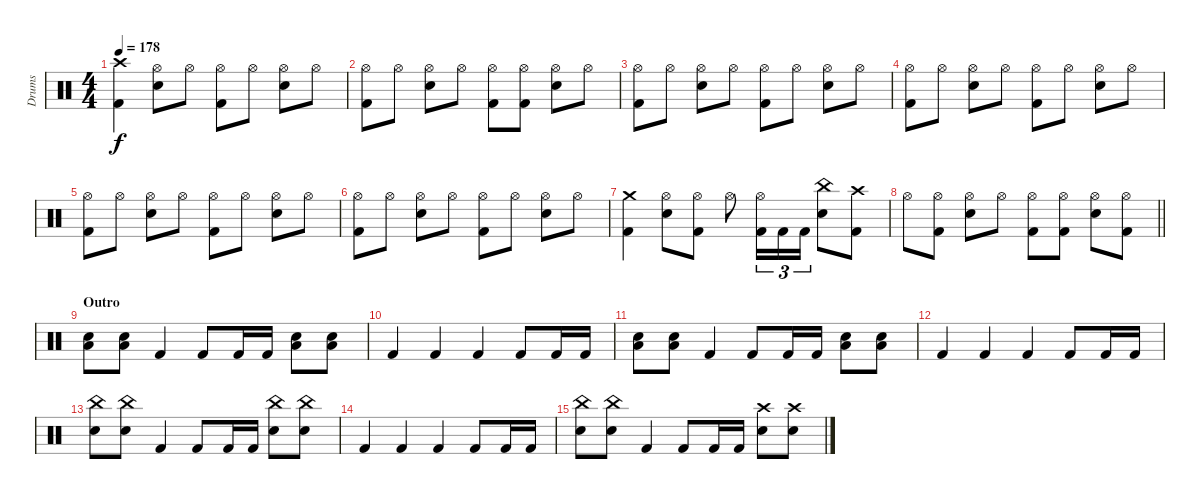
\track ("Drums" "Drums") {instrument percussion}
\staff {score}
\articulation defaults
\ts (4 4)
\tempo 178
\clef neutral
\ks c
("Crash high (hit)" "Kick (hit) 2").4{dy f} ("Hi-Hat (open)" "Electric Snare (hit)").8 "Hi-Hat (open)".8 ("Hi-Hat (open)" "Kick (hit) 2").8 "Hi-Hat (open)".8 ("Hi-Hat (open)" "Electric Snare (hit)").8 "Hi-Hat (open)".8 |
("Hi-Hat (open)" "Kick (hit) 2").8 "Hi-Hat (open)".8 ("Hi-Hat (open)" "Electric Snare (hit)").8 "Hi-Hat (open)".8 ("Hi-Hat (open)" "Kick (hit) 2").8 ("Hi-Hat (open)" "Kick (hit) 2").8 ("Hi-Hat (open)" "Electric Snare (hit)").8 "Hi-Hat (open)".8 |
("Hi-Hat (open)" "Kick (hit) 2").8 "Hi-Hat (open)".8 ("Hi-Hat (open)" "Electric Snare (hit)").8 "Hi-Hat (open)".8 ("Hi-Hat (open)" "Kick (hit) 2").8 "Hi-Hat (open)".8 ("Hi-Hat (open)" "Electric Snare (hit)").8 "Hi-Hat (open)".8 |
("Hi-Hat (open)" "Kick (hit) 2").8 "Hi-Hat (open)".8 ("Hi-Hat (open)" "Electric Snare (hit)").8 "Hi-Hat (open)".8 ("Hi-Hat (open)" "Kick (hit) 2").8 "Hi-Hat (open)".8 ("Hi-Hat (open)" "Electric Snare (hit)").8 "Hi-Hat (open)".8 |
("Hi-Hat (open)" "Kick (hit) 2").8 "Hi-Hat (open)".8 ("Hi-Hat (open)" "Electric Snare (hit)").8 "Hi-Hat (open)".8 ("Hi-Hat (open)" "Kick (hit) 2").8 "Hi-Hat (open)".8 ("Hi-Hat (open)" "Electric Snare (hit)").8 "Hi-Hat (open)".8 |
("Hi-Hat (open)" "Kick (hit) 2").8 "Hi-Hat (open)".8 ("Hi-Hat (open)" "Electric Snare (hit)").8 "Hi-Hat (open)".8 ("Hi-Hat (open)" "Kick (hit) 2").8 "Hi-Hat (open)".8 ("Hi-Hat (open)" "Electric Snare (hit)").8 "Hi-Hat (open)".8 |
("Crash medium (hit)" "Kick (hit) 2").4 ("Hi-Hat (open)" "Electric Snare (hit)").8 ("Hi-Hat (open)" "Kick (hit) 2").8 "Hi-Hat (open)".8 ("Hi-Hat (open)" "Kick (hit) 2").16{tu (3 2)} "Kick (hit) 2".16{tu (3 2)} "Kick (hit) 2".16{tu (3 2)} ("China (hit)" "Electric Snare (hit)").8 ("Crash high (hit)" "Kick (hit) 2").8 |
\barLineRight lightlight "Hi-Hat (open)".8
("Hi-Hat (open)" "Kick (hit) 2").8 ("Hi-Hat (open)" "Electric Snare (hit)").8 "Hi-Hat (open)".8 ("Hi-Hat (open)" "Kick (hit) 2").8 ("Hi-Hat (open)" "Kick (hit) 2").8 ("Hi-Hat (open)" "Electric Snare (hit)").8 ("Hi-Hat (open)" "Kick (hit) 2").8 |
\section ("" "Outro")
("Low Floor Tom (hit)" "Electric Snare (hit)").8 ("Low Floor Tom (hit)" "Electric Snare (hit)").8 "Kick (hit) 2".4 "Kick (hit) 2".8 "Kick (hit) 2".16 "Kick (hit) 2".16 ("Low Floor Tom (hit)" "Electric Snare (hit)").8 ("Low Floor Tom (hit)" "Electric Snare (hit)").8 |
"Kick (hit) 2".4 "Kick (hit) 2".4 "Kick (hit) 2".4 "Kick (hit) 2".8 "Kick (hit) 2".16 "Kick (hit) 2".16 |
("Low Floor Tom (hit)" "Electric Snare (hit)").8 ("Low Floor Tom (hit)" "Electric Snare (hit)").8 "Kick (hit) 2".4 "Kick (hit) 2".8 "Kick (hit) 2".16 "Kick (hit) 2".16 ("Low Floor Tom (hit)" "Electric Snare (hit)").8 ("Low Floor Tom (hit)" "Electric Snare (hit)").8 |
"Kick (hit) 2".4 "Kick (hit) 2".4 "Kick (hit) 2".4 "Kick (hit) 2".8 "Kick (hit) 2".16 "Kick (hit) 2".16 |
("China (hit)" "Electric Snare (hit)").8 ("China (hit)" "Electric Snare (hit)").8 "Kick (hit) 2".4 "Kick (hit) 2".8 "Kick (hit) 2".16 "Kick (hit) 2".16 ("China (hit)" "Electric Snare (hit)").8 ("China (hit)" "Electric Snare (hit)").8 |
"Kick (hit) 2".4 "Kick (hit) 2".4 "Kick (hit) 2".4 "Kick (hit) 2".8 "Kick (hit) 2".16 "Kick (hit) 2".16 |
("China (hit)" "Electric Snare (hit)").8 ("China (hit)" "Electric Snare (hit)").8 "Kick (hit) 2".4 "Kick (hit) 2".8 "Kick (hit) 2".16 "Kick (hit) 2".16 ("Crash high (hit)" "Electric Snare (hit)").8 ("Crash high (hit)" "Electric Snare (hit)").8
